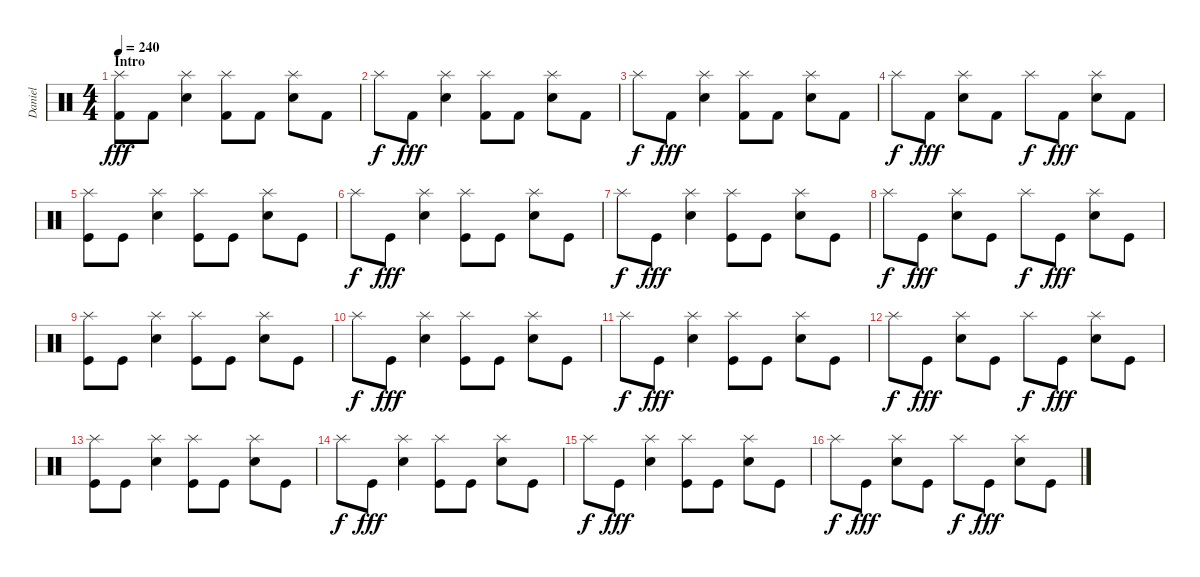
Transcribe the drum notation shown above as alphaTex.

\track ("Daniel" "Daniel") {instrument percussion}
\staff {score}
\articulation defaults
\ts (4 4)
\section ("" "Intro")
\tempo 240
\clef neutral
\ks c
("Kick (hit) 2" "Splash (hit)").8{dy fff} "Kick (hit) 2".8 ("Electric Snare (hit)" "Splash (hit)").4 ("Kick (hit) 2" "Splash (hit)").8 "Kick (hit) 2".8 ("Electric Snare (hit)" "Splash (hit)").8 "Kick (hit) 2".8 |
"Splash (hit)".8{dy f} "Kick (hit) 2".8{dy fff} ("Electric Snare (hit)" "Splash (hit)").4 ("Kick (hit) 2" "Splash (hit)").8 "Kick (hit) 2".8 ("Electric Snare (hit)" "Splash (hit)").8 "Kick (hit) 2".8 |
"Splash (hit)".8{dy f} "Kick (hit) 2".8{dy fff} ("Electric Snare (hit)" "Splash (hit)").4 ("Kick (hit) 2" "Splash (hit)").8 "Kick (hit) 2".8 ("Electric Snare (hit)" "Splash (hit)").8 "Kick (hit) 2".8 |
"Splash (hit)".8{dy f volume 14 balance 0} "Kick (hit) 2".8{dy fff} ("Electric Snare (hit)" "Splash (hit)").8{balance 16} "Kick (hit) 2".8 "Splash (hit)".8{dy f balance 0} "Kick (hit) 2".8{dy fff} ("Electric Snare (hit)" "Splash (hit)").8{balance 16} "Kick (hit) 2".8 |
("Kick (hit)" "Splash (hit)").8{volume 12 balance 8} "Kick (hit)".8 ("Electric Snare (hit)" "Splash (hit)").4 ("Kick (hit)" "Splash (hit)").8 "Kick (hit)".8 ("Electric Snare (hit)" "Splash (hit)").8 "Kick (hit)".8 |
"Splash (hit)".8{dy f} "Kick (hit)".8{dy fff} ("Electric Snare (hit)" "Splash (hit)").4 ("Kick (hit)" "Splash (hit)").8 "Kick (hit)".8 ("Electric Snare (hit)" "Splash (hit)").8 "Kick (hit)".8 |
"Splash (hit)".8{dy f} "Kick (hit)".8{dy fff} ("Electric Snare (hit)" "Splash (hit)").4 ("Kick (hit)" "Splash (hit)").8 "Kick (hit)".8 ("Electric Snare (hit)" "Splash (hit)").8 "Kick (hit)".8 |
"Splash (hit)".8{dy f volume 14 balance 0} "Kick (hit)".8{dy fff} ("Electric Snare (hit)" "Splash (hit)").8{balance 16} "Kick (hit)".8 "Splash (hit)".8{dy f balance 0} "Kick (hit)".8{dy fff} ("Electric Snare (hit)" "Splash (hit)").8{balance 16} "Kick (hit)".8 |
("Kick (hit)" "Splash (hit)").8{volume 12 balance 8} "Kick (hit)".8 ("Electric Snare (hit)" "Splash (hit)").4 ("Kick (hit)" "Splash (hit)").8 "Kick (hit)".8 ("Electric Snare (hit)" "Splash (hit)").8 "Kick (hit)".8 |
"Splash (hit)".8{dy f} "Kick (hit)".8{dy fff} ("Electric Snare (hit)" "Splash (hit)").4 ("Kick (hit)" "Splash (hit)").8 "Kick (hit)".8 ("Electric Snare (hit)" "Splash (hit)").8 "Kick (hit)".8 |
"Splash (hit)".8{dy f} "Kick (hit)".8{dy fff} ("Electric Snare (hit)" "Splash (hit)").4 ("Kick (hit)" "Splash (hit)").8 "Kick (hit)".8 ("Electric Snare (hit)" "Splash (hit)").8 "Kick (hit)".8 |
"Splash (hit)".8{dy f} "Kick (hit)".8{dy fff} ("Electric Snare (hit)" "Splash (hit)").8 "Kick (hit)".8 "Splash (hit)".8{dy f} "Kick (hit)".8{dy fff} ("Electric Snare (hit)" "Splash (hit)").8 "Kick (hit)".8 |
("Kick (hit)" "Splash (hit)").8 "Kick (hit)".8 ("Electric Snare (hit)" "Splash (hit)").4 ("Kick (hit)" "Splash (hit)").8 "Kick (hit)".8 ("Electric Snare (hit)" "Splash (hit)").8 "Kick (hit)".8 |
"Splash (hit)".8{dy f} "Kick (hit)".8{dy fff} ("Electric Snare (hit)" "Splash (hit)").4 ("Kick (hit)" "Splash (hit)").8 "Kick (hit)".8 ("Electric Snare (hit)" "Splash (hit)").8 "Kick (hit)".8 |
"Splash (hit)".8{dy f} "Kick (hit)".8{dy fff} ("Electric Snare (hit)" "Splash (hit)").4 ("Kick (hit)" "Splash (hit)").8 "Kick (hit)".8 ("Electric Snare (hit)" "Splash (hit)").8 "Kick (hit)".8 |
"Splash (hit)".8{dy f} "Kick (hit)".8{dy fff} ("Electric Snare (hit)" "Splash (hit)").8 "Kick (hit)".8 "Splash (hit)".8{dy f} "Kick (hit)".8{dy fff} ("Electric Snare (hit)" "Splash (hit)").8 "Kick (hit)".8
